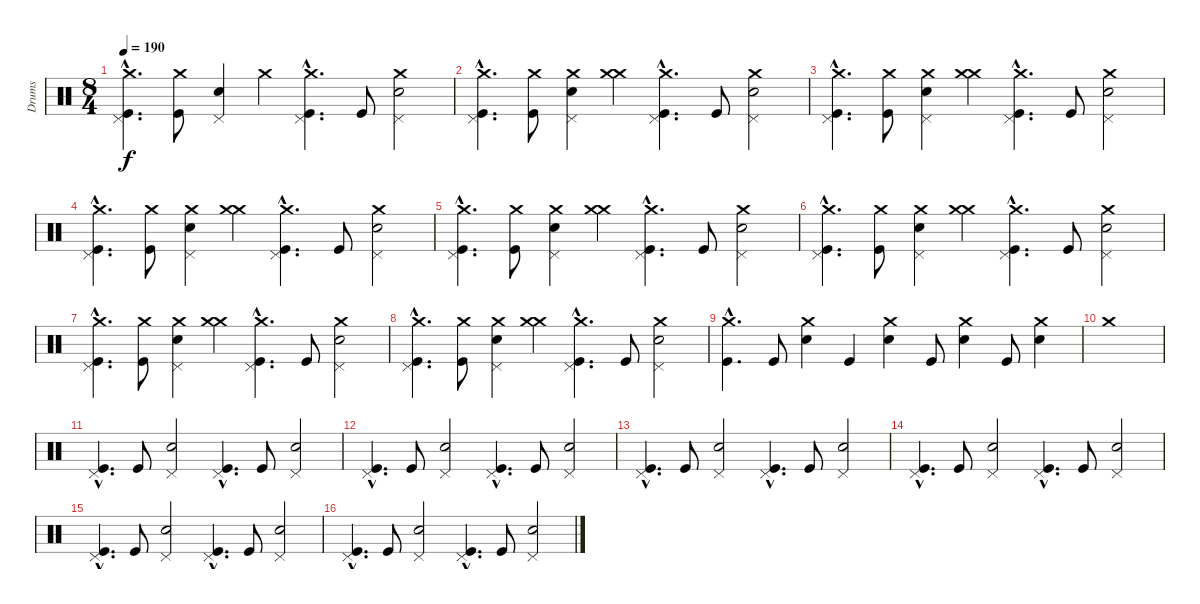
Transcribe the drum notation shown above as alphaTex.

\track ("Drums" "Drums") {instrument percussion}
\staff {score}
\articulation defaults
\ts (8 4)
\tempo 190
\clef neutral
\ks c
("Crash medium (hit)"{hac} "Pedal Hi-Hat (hit)"{hac} "Kick (hit)"{hac}).4{d dy f} ("Crash medium (hit)" "Kick (hit)").8 ("Pedal Hi-Hat (hit)" "Electric Snare (hit)").4 "Crash medium (hit)".4 ("Pedal Hi-Hat (hit)"{hac} "Crash medium (hit)"{hac} "Kick (hit)"{hac}).4{d} "Kick (hit)".8 ("Pedal Hi-Hat (hit)" "Electric Snare (hit)" "Crash medium (hit)").2 |
("Crash medium (hit)"{hac} "Pedal Hi-Hat (hit)"{hac} "Kick (hit)"{hac}).4{d} ("Crash medium (hit)" "Kick (hit)").8 ("Pedal Hi-Hat (hit)" "Electric Snare (hit)" "Crash medium (hit)").4 ("Crash medium (hit)" "Crash medium (hit)").4 ("Pedal Hi-Hat (hit)"{hac} "Crash medium (hit)"{hac} "Kick (hit)"{hac}).4{d} "Kick (hit)".8 ("Pedal Hi-Hat (hit)" "Electric Snare (hit)" "Crash medium (hit)").2 |
("Crash medium (hit)"{hac} "Pedal Hi-Hat (hit)"{hac} "Kick (hit)"{hac}).4{d} ("Crash medium (hit)" "Kick (hit)").8 ("Pedal Hi-Hat (hit)" "Electric Snare (hit)" "Crash medium (hit)").4 ("Crash medium (hit)" "Crash medium (hit)").4 ("Pedal Hi-Hat (hit)"{hac} "Crash medium (hit)"{hac} "Kick (hit)"{hac}).4{d} "Kick (hit)".8 ("Pedal Hi-Hat (hit)" "Electric Snare (hit)" "Crash medium (hit)").2 |
("Crash medium (hit)"{hac} "Pedal Hi-Hat (hit)"{hac} "Kick (hit)"{hac}).4{d} ("Crash medium (hit)" "Kick (hit)").8 ("Pedal Hi-Hat (hit)" "Electric Snare (hit)" "Crash medium (hit)").4 ("Crash medium (hit)" "Crash medium (hit)").4 ("Pedal Hi-Hat (hit)"{hac} "Crash medium (hit)"{hac} "Kick (hit)"{hac}).4{d} "Kick (hit)".8 ("Pedal Hi-Hat (hit)" "Electric Snare (hit)" "Crash medium (hit)").2 |
("Crash medium (hit)"{hac} "Pedal Hi-Hat (hit)"{hac} "Kick (hit)"{hac}).4{d} ("Crash medium (hit)" "Kick (hit)").8 ("Pedal Hi-Hat (hit)" "Electric Snare (hit)" "Crash medium (hit)").4 ("Crash medium (hit)" "Crash medium (hit)").4 ("Pedal Hi-Hat (hit)"{hac} "Crash medium (hit)"{hac} "Kick (hit)"{hac}).4{d} "Kick (hit)".8 ("Pedal Hi-Hat (hit)" "Electric Snare (hit)" "Crash medium (hit)").2 |
("Crash medium (hit)"{hac} "Pedal Hi-Hat (hit)"{hac} "Kick (hit)"{hac}).4{d} ("Crash medium (hit)" "Kick (hit)").8 ("Pedal Hi-Hat (hit)" "Electric Snare (hit)" "Crash medium (hit)").4 ("Crash medium (hit)" "Crash medium (hit)").4 ("Pedal Hi-Hat (hit)"{hac} "Crash medium (hit)"{hac} "Kick (hit)"{hac}).4{d} "Kick (hit)".8 ("Pedal Hi-Hat (hit)" "Electric Snare (hit)" "Crash medium (hit)").2 |
("Crash medium (hit)"{hac} "Pedal Hi-Hat (hit)"{hac} "Kick (hit)"{hac}).4{d} ("Crash medium (hit)" "Kick (hit)").8 ("Pedal Hi-Hat (hit)" "Electric Snare (hit)" "Crash medium (hit)").4 ("Crash medium (hit)" "Crash medium (hit)").4 ("Pedal Hi-Hat (hit)"{hac} "Crash medium (hit)"{hac} "Kick (hit)"{hac}).4{d} "Kick (hit)".8 ("Pedal Hi-Hat (hit)" "Electric Snare (hit)" "Crash medium (hit)").2 |
("Crash medium (hit)"{hac} "Pedal Hi-Hat (hit)"{hac} "Kick (hit)"{hac}).4{d} ("Crash medium (hit)" "Kick (hit)").8 ("Pedal Hi-Hat (hit)" "Electric Snare (hit)" "Crash medium (hit)").4 ("Crash medium (hit)" "Crash medium (hit)").4 ("Pedal Hi-Hat (hit)"{hac} "Crash medium (hit)"{hac} "Kick (hit)"{hac}).4{d} "Kick (hit)".8 ("Pedal Hi-Hat (hit)" "Electric Snare (hit)" "Crash medium (hit)").2 |
("Crash medium (hit)"{hac} "Kick (hit)"{hac}).4{d} "Kick (hit)".8 ("Crash medium (hit)" "Electric Snare (hit)").4 "Kick (hit)".4 ("Crash medium (hit)" "Electric Snare (hit)").4 "Kick (hit)".8 ("Crash medium (hit)" "Electric Snare (hit)").4 "Kick (hit)".8 ("Crash medium (hit)" "Electric Snare (hit)").4 |
"Crash medium (hit)".1 |
("Pedal Hi-Hat (hit)"{hac} "Kick (hit)"{hac}).4{d} "Kick (hit)".8 ("Pedal Hi-Hat (hit)" "Electric Snare (hit)").2 ("Pedal Hi-Hat (hit)"{hac} "Kick (hit)"{hac}).4{d} "Kick (hit)".8 ("Pedal Hi-Hat (hit)" "Electric Snare (hit)").2 |
("Pedal Hi-Hat (hit)"{hac} "Kick (hit)"{hac}).4{d} "Kick (hit)".8 ("Pedal Hi-Hat (hit)" "Electric Snare (hit)").2 ("Pedal Hi-Hat (hit)"{hac} "Kick (hit)"{hac}).4{d} "Kick (hit)".8 ("Pedal Hi-Hat (hit)" "Electric Snare (hit)").2 |
("Pedal Hi-Hat (hit)"{hac} "Kick (hit)"{hac}).4{d} "Kick (hit)".8 ("Pedal Hi-Hat (hit)" "Electric Snare (hit)").2 ("Pedal Hi-Hat (hit)"{hac} "Kick (hit)"{hac}).4{d} "Kick (hit)".8 ("Pedal Hi-Hat (hit)" "Electric Snare (hit)").2 |
("Pedal Hi-Hat (hit)"{hac} "Kick (hit)"{hac}).4{d} "Kick (hit)".8 ("Pedal Hi-Hat (hit)" "Electric Snare (hit)").2 ("Pedal Hi-Hat (hit)"{hac} "Kick (hit)"{hac}).4{d} "Kick (hit)".8 ("Pedal Hi-Hat (hit)" "Electric Snare (hit)").2 |
("Pedal Hi-Hat (hit)"{hac} "Kick (hit)"{hac}).4{d} "Kick (hit)".8 ("Pedal Hi-Hat (hit)" "Electric Snare (hit)").2 ("Pedal Hi-Hat (hit)"{hac} "Kick (hit)"{hac}).4{d} "Kick (hit)".8 ("Pedal Hi-Hat (hit)" "Electric Snare (hit)").2 |
("Pedal Hi-Hat (hit)"{hac} "Kick (hit)"{hac}).4{d} "Kick (hit)".8 ("Pedal Hi-Hat (hit)" "Electric Snare (hit)").2 ("Pedal Hi-Hat (hit)"{hac} "Kick (hit)"{hac}).4{d} "Kick (hit)".8 ("Pedal Hi-Hat (hit)" "Electric Snare (hit)").2
